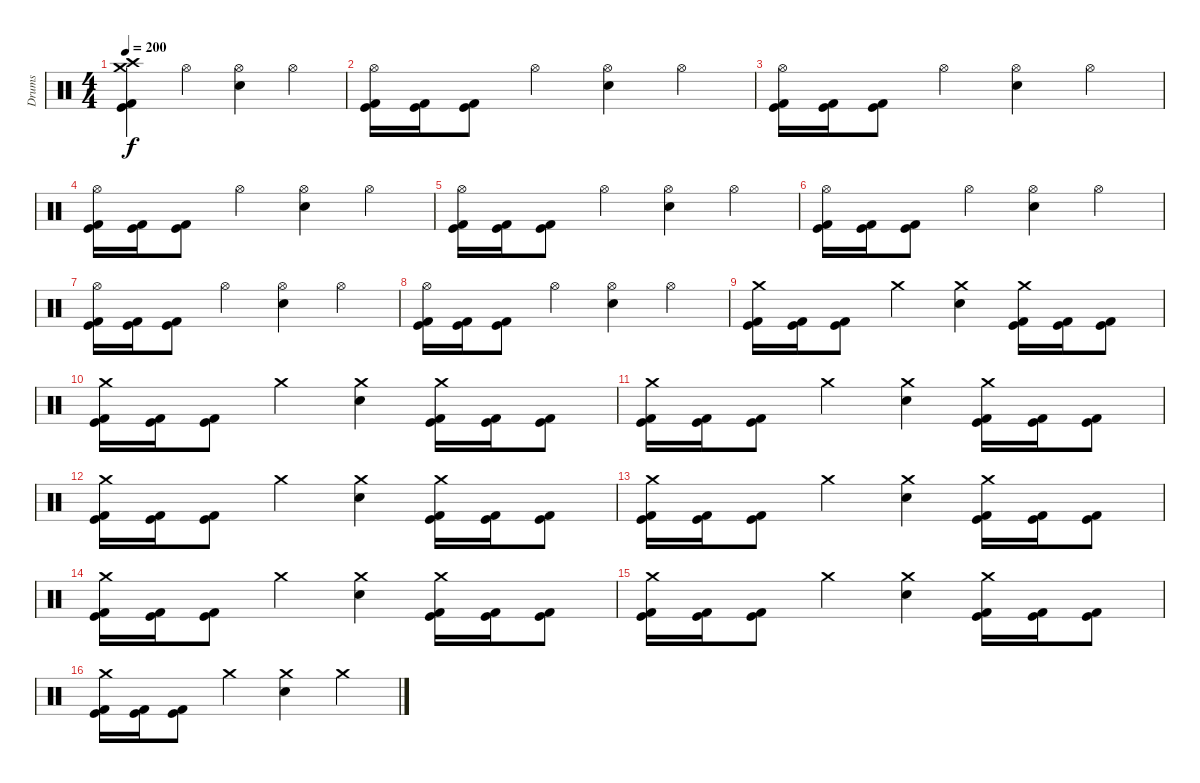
\track ("Drums" "Drums") {instrument percussion}
\staff {score}
\articulation defaults
\ts (4 4)
\tempo 200
\clef neutral
\ks c
("Crash high (hit)" "Crash medium (hit)" "Kick (hit)" "Kick (hit) 2").4{dy f} "Hi-Hat (open)".4 ("Hi-Hat (open)" "Electric Snare (hit)").4 "Hi-Hat (open)".4 |
("Hi-Hat (open)" "Kick (hit)" "Kick (hit) 2").16 ("Kick (hit)" "Kick (hit) 2").16 ("Kick (hit)" "Kick (hit) 2").8 "Hi-Hat (open)".4 ("Hi-Hat (open)" "Electric Snare (hit)").4 "Hi-Hat (open)".4 |
("Hi-Hat (open)" "Kick (hit)" "Kick (hit) 2").16 ("Kick (hit)" "Kick (hit) 2").16 ("Kick (hit)" "Kick (hit) 2").8 "Hi-Hat (open)".4 ("Hi-Hat (open)" "Electric Snare (hit)").4 "Hi-Hat (open)".4 |
("Hi-Hat (open)" "Kick (hit)" "Kick (hit) 2").16 ("Kick (hit)" "Kick (hit) 2").16 ("Kick (hit)" "Kick (hit) 2").8 "Hi-Hat (open)".4 ("Hi-Hat (open)" "Electric Snare (hit)").4 "Hi-Hat (open)".4 |
("Hi-Hat (open)" "Kick (hit)" "Kick (hit) 2").16 ("Kick (hit)" "Kick (hit) 2").16 ("Kick (hit)" "Kick (hit) 2").8 "Hi-Hat (open)".4 ("Hi-Hat (open)" "Electric Snare (hit)").4 "Hi-Hat (open)".4 |
("Hi-Hat (open)" "Kick (hit)" "Kick (hit) 2").16 ("Kick (hit)" "Kick (hit) 2").16 ("Kick (hit)" "Kick (hit) 2").8 "Hi-Hat (open)".4 ("Hi-Hat (open)" "Electric Snare (hit)").4 "Hi-Hat (open)".4 |
("Hi-Hat (open)" "Kick (hit)" "Kick (hit) 2").16 ("Kick (hit)" "Kick (hit) 2").16 ("Kick (hit)" "Kick (hit) 2").8 "Hi-Hat (open)".4 ("Hi-Hat (open)" "Electric Snare (hit)").4 "Hi-Hat (open)".4 |
("Hi-Hat (open)" "Kick (hit)" "Kick (hit) 2").16 ("Kick (hit)" "Kick (hit) 2").16 ("Kick (hit)" "Kick (hit) 2").8 "Hi-Hat (open)".4 ("Hi-Hat (open)" "Electric Snare (hit)").4 "Hi-Hat (open)".4 |
("Crash medium (hit)" "Kick (hit)" "Kick (hit) 2").16 ("Kick (hit)" "Kick (hit) 2").16 ("Kick (hit)" "Kick (hit) 2").8 "Crash medium (hit)".4 ("Crash medium (hit)" "Electric Snare (hit)").4 ("Crash medium (hit)" "Kick (hit)" "Kick (hit) 2").16 ("Kick (hit)" "Kick (hit) 2").16 ("Kick (hit)" "Kick (hit) 2").8 |
("Crash medium (hit)" "Kick (hit)" "Kick (hit) 2").16 ("Kick (hit)" "Kick (hit) 2").16 ("Kick (hit)" "Kick (hit) 2").8 "Crash medium (hit)".4 ("Crash medium (hit)" "Electric Snare (hit)").4 ("Crash medium (hit)" "Kick (hit)" "Kick (hit) 2").16 ("Kick (hit)" "Kick (hit) 2").16 ("Kick (hit)" "Kick (hit) 2").8 |
("Crash medium (hit)" "Kick (hit)" "Kick (hit) 2").16 ("Kick (hit)" "Kick (hit) 2").16 ("Kick (hit)" "Kick (hit) 2").8 "Crash medium (hit)".4 ("Crash medium (hit)" "Electric Snare (hit)").4 ("Crash medium (hit)" "Kick (hit)" "Kick (hit) 2").16 ("Kick (hit)" "Kick (hit) 2").16 ("Kick (hit)" "Kick (hit) 2").8 |
("Crash medium (hit)" "Kick (hit)" "Kick (hit) 2").16 ("Kick (hit)" "Kick (hit) 2").16 ("Kick (hit)" "Kick (hit) 2").8 "Crash medium (hit)".4 ("Crash medium (hit)" "Electric Snare (hit)").4 ("Crash medium (hit)" "Kick (hit)" "Kick (hit) 2").16 ("Kick (hit)" "Kick (hit) 2").16 ("Kick (hit)" "Kick (hit) 2").8 |
("Crash medium (hit)" "Kick (hit)" "Kick (hit) 2").16 ("Kick (hit)" "Kick (hit) 2").16 ("Kick (hit)" "Kick (hit) 2").8 "Crash medium (hit)".4 ("Crash medium (hit)" "Electric Snare (hit)").4 ("Crash medium (hit)" "Kick (hit)" "Kick (hit) 2").16 ("Kick (hit)" "Kick (hit) 2").16 ("Kick (hit)" "Kick (hit) 2").8 |
("Crash medium (hit)" "Kick (hit)" "Kick (hit) 2").16 ("Kick (hit)" "Kick (hit) 2").16 ("Kick (hit)" "Kick (hit) 2").8 "Crash medium (hit)".4 ("Crash medium (hit)" "Electric Snare (hit)").4 ("Crash medium (hit)" "Kick (hit)" "Kick (hit) 2").16 ("Kick (hit)" "Kick (hit) 2").16 ("Kick (hit)" "Kick (hit) 2").8 |
("Crash medium (hit)" "Kick (hit)" "Kick (hit) 2").16 ("Kick (hit)" "Kick (hit) 2").16 ("Kick (hit)" "Kick (hit) 2").8 "Crash medium (hit)".4 ("Crash medium (hit)" "Electric Snare (hit)").4 ("Crash medium (hit)" "Kick (hit)" "Kick (hit) 2").16 ("Kick (hit)" "Kick (hit) 2").16 ("Kick (hit)" "Kick (hit) 2").8 |
("Crash medium (hit)" "Kick (hit)" "Kick (hit) 2").16 ("Kick (hit)" "Kick (hit) 2").16 ("Kick (hit)" "Kick (hit) 2").8 "Crash medium (hit)".4 ("Crash medium (hit)" "Electric Snare (hit)").4 "Crash medium (hit)".4
